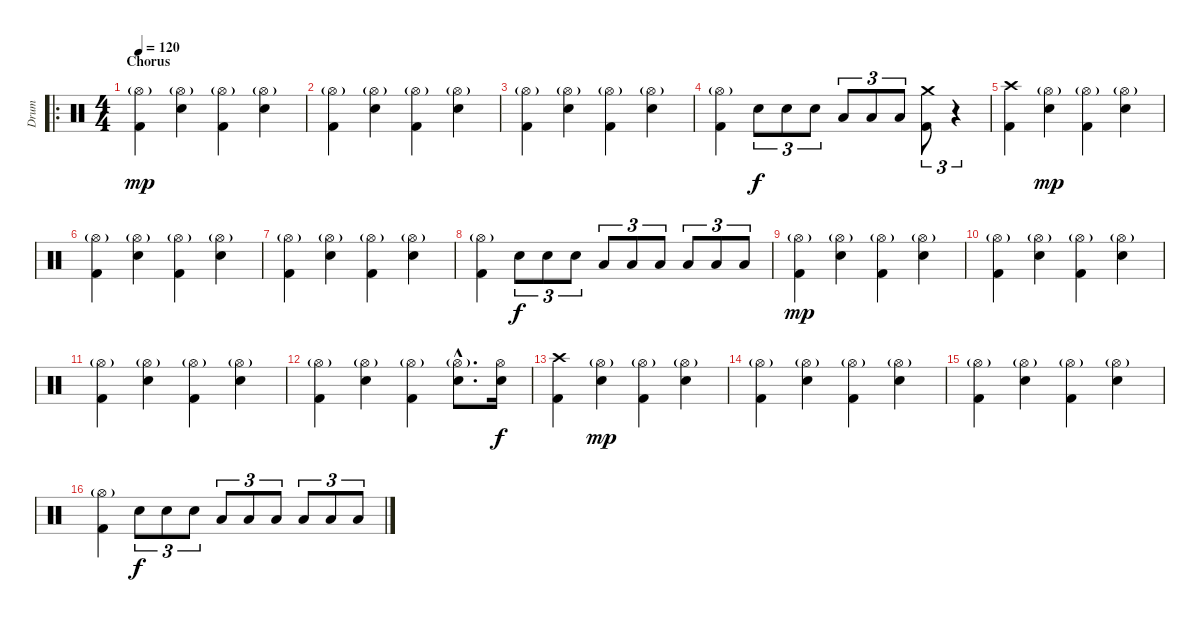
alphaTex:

\track ("Drum" "Drum") {instrument percussion}
\staff {score}
\articulation defaults
\ro
\ts (4 4)
\section ("" "Chorus")
\tempo 120
\clef neutral
\ks c
("Hi-Hat (open)"{g} "Kick (hit) 2").4{dy mp} ("Electric Snare (hit)" "Hi-Hat (open)"{g}).4 ("Hi-Hat (open)"{g} "Kick (hit) 2").4 ("Electric Snare (hit)" "Hi-Hat (open)"{g}).4 |
("Hi-Hat (open)"{g} "Kick (hit) 2").4 ("Electric Snare (hit)" "Hi-Hat (open)"{g}).4 ("Hi-Hat (open)"{g} "Kick (hit) 2").4 ("Electric Snare (hit)" "Hi-Hat (open)"{g}).4 |
("Hi-Hat (open)"{g} "Kick (hit) 2").4 ("Electric Snare (hit)" "Hi-Hat (open)"{g}).4 ("Hi-Hat (open)"{g} "Kick (hit) 2").4 ("Electric Snare (hit)" "Hi-Hat (open)"{g}).4 |
("Hi-Hat (open)"{g} "Kick (hit) 2").4 "Electric Snare (hit)".8{tu (3 2) dy f} "Electric Snare (hit)".8{tu (3 2)} "Electric Snare (hit)".8{tu (3 2)} "Low Tom (hit)".8{tu (3 2)} "Low Tom (hit)".8{tu (3 2)} "Low Tom (hit)".8{tu (3 2)} ("Crash medium (hit)" "Kick (hit) 2").8{tu (3 2)} r.4{tu (3 2)} |
("Crash high (hit)" "Kick (hit) 2").4 ("Electric Snare (hit)" "Hi-Hat (open)"{g}).4{dy mp} ("Hi-Hat (open)"{g} "Kick (hit) 2").4 ("Electric Snare (hit)" "Hi-Hat (open)"{g}).4 |
("Hi-Hat (open)"{g} "Kick (hit) 2").4 ("Electric Snare (hit)" "Hi-Hat (open)"{g}).4 ("Hi-Hat (open)"{g} "Kick (hit) 2").4 ("Electric Snare (hit)" "Hi-Hat (open)"{g}).4 |
("Hi-Hat (open)"{g} "Kick (hit) 2").4 ("Electric Snare (hit)" "Hi-Hat (open)"{g}).4 ("Hi-Hat (open)"{g} "Kick (hit) 2").4 ("Electric Snare (hit)" "Hi-Hat (open)"{g}).4 |
("Hi-Hat (open)"{g} "Kick (hit) 2").4 "Electric Snare (hit)".8{tu (3 2) dy f} "Electric Snare (hit)".8{tu (3 2)} "Electric Snare (hit)".8{tu (3 2)} "Low Tom (hit)".8{tu (3 2)} "Low Tom (hit)".8{tu (3 2)} "Low Tom (hit)".8{tu (3 2)} "Low Floor Tom (hit)".8{tu (3 2)} "Low Floor Tom (hit)".8{tu (3 2)} "Low Floor Tom (hit)".8{tu (3 2)} |
("Hi-Hat (open)"{g} "Kick (hit) 2").4{dy mp} ("Electric Snare (hit)" "Hi-Hat (open)"{g}).4 ("Hi-Hat (open)"{g} "Kick (hit) 2").4 ("Electric Snare (hit)" "Hi-Hat (open)"{g}).4 |
("Hi-Hat (open)"{g} "Kick (hit) 2").4 ("Electric Snare (hit)" "Hi-Hat (open)"{g}).4 ("Hi-Hat (open)"{g} "Kick (hit) 2").4 ("Electric Snare (hit)" "Hi-Hat (open)"{g}).4 |
("Hi-Hat (open)"{g} "Kick (hit) 2").4 ("Electric Snare (hit)" "Hi-Hat (open)"{g}).4 ("Hi-Hat (open)"{g} "Kick (hit) 2").4 ("Electric Snare (hit)" "Hi-Hat (open)"{g}).4 |
("Hi-Hat (open)"{g} "Kick (hit) 2").4 ("Electric Snare (hit)" "Hi-Hat (open)"{g}).4 ("Hi-Hat (open)"{g} "Kick (hit) 2").4 ("Electric Snare (hit)"{hac} "Hi-Hat (open)"{g hac}).8{d} ("Electric Snare (hit)" "Hi-Hat (open)").16{dy f} |
("Crash high (hit)" "Kick (hit) 2").4 ("Electric Snare (hit)" "Hi-Hat (open)"{g}).4{dy mp} ("Hi-Hat (open)"{g} "Kick (hit) 2").4 ("Electric Snare (hit)" "Hi-Hat (open)"{g}).4 |
("Hi-Hat (open)"{g} "Kick (hit) 2").4 ("Electric Snare (hit)" "Hi-Hat (open)"{g}).4 ("Hi-Hat (open)"{g} "Kick (hit) 2").4 ("Electric Snare (hit)" "Hi-Hat (open)"{g}).4 |
("Hi-Hat (open)"{g} "Kick (hit) 2").4 ("Electric Snare (hit)" "Hi-Hat (open)"{g}).4 ("Hi-Hat (open)"{g} "Kick (hit) 2").4 ("Electric Snare (hit)" "Hi-Hat (open)"{g}).4 |
("Hi-Hat (open)"{g} "Kick (hit) 2").4 "Electric Snare (hit)".8{tu (3 2) dy f} "Electric Snare (hit)".8{tu (3 2)} "Electric Snare (hit)".8{tu (3 2)} "Low Tom (hit)".8{tu (3 2)} "Low Tom (hit)".8{tu (3 2)} "Low Tom (hit)".8{tu (3 2)} "Low Floor Tom (hit)".8{tu (3 2)} "Low Floor Tom (hit)".8{tu (3 2)} "Low Floor Tom (hit)".8{tu (3 2)}
